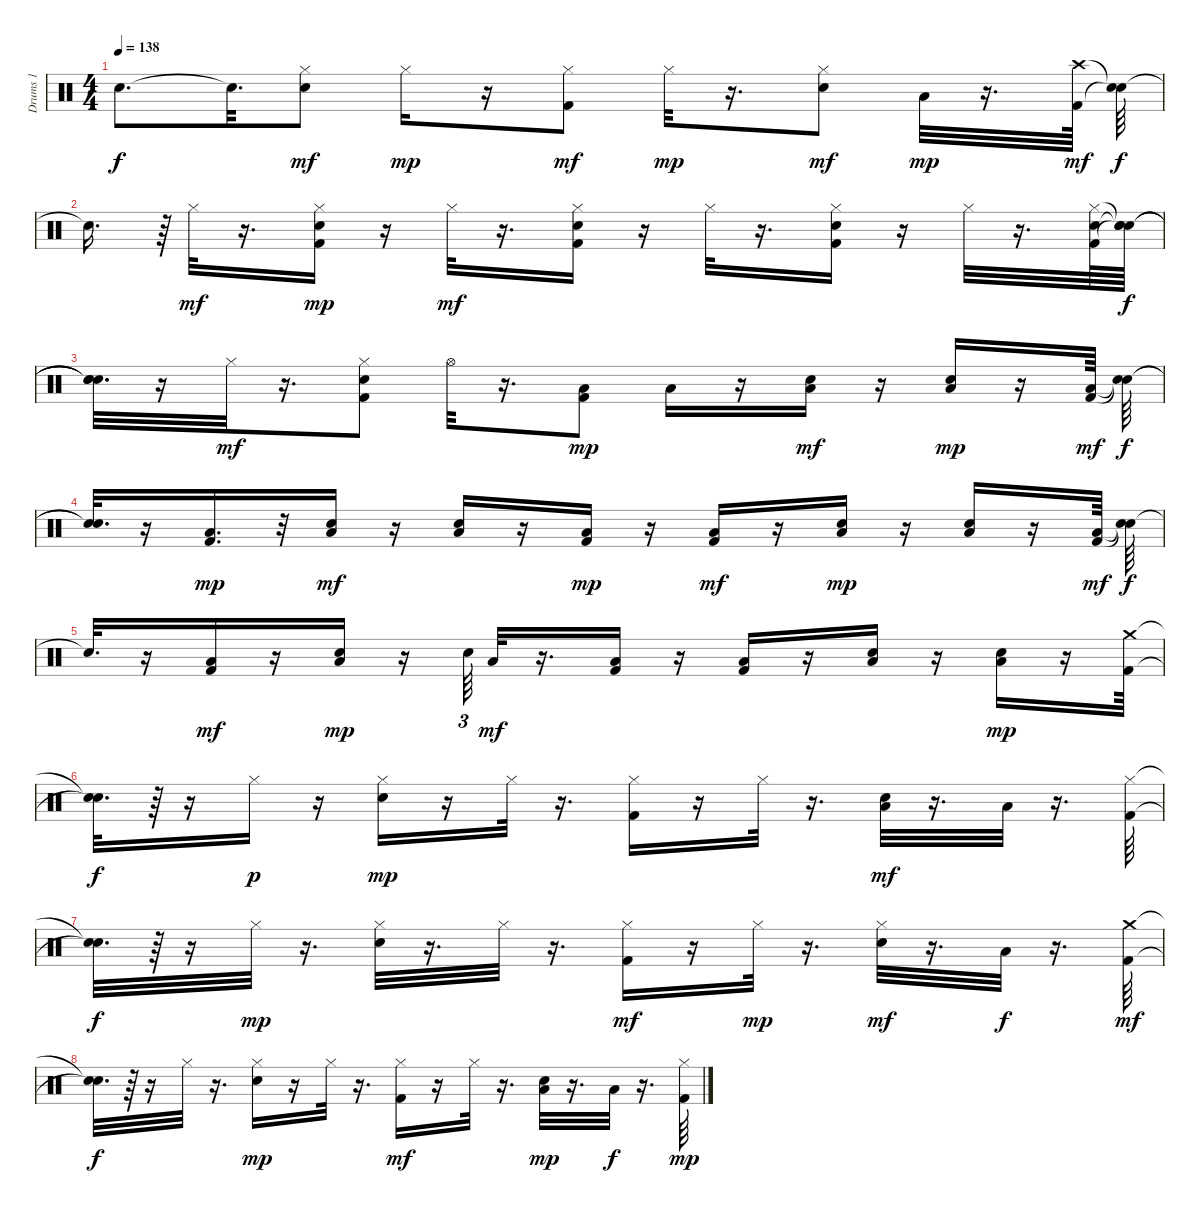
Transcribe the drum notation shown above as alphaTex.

\track ("Drums 1" "Drums 1") {instrument percussion}
\staff {score}
\articulation defaults
\ts (4 4)
\tempo 138
\clef neutral
\ks c "Snare (hit)"{t}.8{d dy f} "Snare (hit)"{t}.32{d}
("Snare (hit) 2" "Hi-Hat (closed)").8{dy mf} "Hi-Hat (closed)".16{dy mp} r.16 ("Kick (hit) 2" "Hi-Hat (closed)").8{dy mf} "Hi-Hat (closed)".32{dy mp} r.16{d} ("Snare (hit) 2" "Hi-Hat (closed)").8{dy mf} "Low Floor Tom (hit)".32{dy mp} r.16{d} ("Crash high (hit)" "Kick (hit) 2").64{dy mf} ("Snare (hit)"{t} "Snare (hit)"{t}).64{dy f} |
"Snare (hit)"{t}.16{d} r.64{tu (5 4)} "Hi-Hat (closed)".32{dy mf} r.16{d} ("Kick (hit) 2" "Hi-Hat (closed)" "Snare (hit) 2").16{dy mp} r.16 "Hi-Hat (closed)".32{dy mf} r.16{d} ("Hi-Hat (closed)" "Kick (hit) 2" "Snare (hit) 2").16 r.16 "Hi-Hat (closed)".32 r.16{d} ("Kick (hit) 2" "Hi-Hat (closed)" "Snare (hit) 2").16 r.16 "Hi-Hat (closed)".32 r.16{d} ("Hi-Hat (closed)" "Kick (hit) 2" "Snare (hit) 2").64 ("Snare (hit)"{t} "Snare (hit)"{t} "Snare (hit)"{t}).64{dy f} |
("Snare (hit)"{t} "Snare (hit)"{t} "Snare (hit)"{t}).32{d} r.16 "Hi-Hat (closed)".32{dy mf} r.16{d} ("Kick (hit) 2" "Snare (hit) 2" "Hi-Hat (closed)").8 "Hi-Hat (open)".32 r.16{d} ("Kick (hit) 2" "Low Floor Tom (hit)").8{dy mp} "Low Floor Tom (hit)".16 r.16 ("Snare (hit) 2" "Low Floor Tom (hit)").16{dy mf} r.16 ("Low Floor Tom (hit)" "Snare (hit) 2").16{dy mp} r.16 ("Kick (hit) 2" "Low Floor Tom (hit)").64{dy mf} ("Snare (hit)"{t} "Snare (hit)"{t}).64{dy f} |
("Snare (hit)"{t} "Snare (hit)"{t}).32{d} r.16 ("Low Floor Tom (hit)" "Kick (hit) 2").16{d dy mp} r.32 ("Low Floor Tom (hit)" "Snare (hit) 2").16{dy mf} r.16 ("Snare (hit) 2" "Low Floor Tom (hit)").16 r.16 ("Low Floor Tom (hit)" "Kick (hit) 2").16{dy mp} r.16 ("Kick (hit) 2" "Low Floor Tom (hit)").16{dy mf} r.16 ("Low Floor Tom (hit)" "Snare (hit) 2").16{dy mp} r.16 ("Low Floor Tom (hit)" "Snare (hit) 2").16 r.16 ("Kick (hit) 2" "Low Floor Tom (hit)").64{dy mf} ("Snare (hit)"{t} "Snare (hit)"{t}).64{dy f} |
"Snare (hit)"{t}.32{d} r.16 ("Kick (hit) 2" "Low Floor Tom (hit)").16{dy mf} r.16 ("Low Floor Tom (hit)" "Snare (hit) 2").16{dy mp} r.16 "Snare (hit) 2".64{tu (3 2)} "Low Floor Tom (hit)".32{dy mf} r.16{d} ("Kick (hit) 2" "Low Floor Tom (hit)").16 r.16 ("Kick (hit) 2" "Low Floor Tom (hit)").16 r.16 ("Snare (hit) 2" "Low Floor Tom (hit)").16 r.16 ("Low Floor Tom (hit)" "Snare (hit) 2").16{dy mp} r.16 ("Kick (hit) 2" "Crash medium (hit)").64 |
("Snare (hit)"{t} "Snare (hit)"{t}).32{d dy f} r.64 r.16 "Hi-Hat (closed)".16{dy p} r.16 ("Snare (hit) 2" "Hi-Hat (closed)").16{dy mp} r.16 "Hi-Hat (closed)".32 r.16{d} ("Kick (hit) 2" "Hi-Hat (closed)").16 r.16 "Hi-Hat (closed)".32 r.16{d} ("Snare (hit) 2" "Low Tom (hit)").32{dy mf} r.16{d} "Low Floor Tom (hit)".32 r.16{d} ("Kick (hit) 2" "Hi-Hat (closed)").64 |
("Snare (hit)"{t} "Snare (hit)"{t}).32{d dy f} r.64 r.16 "Hi-Hat (closed)".32{dy mp} r.16{d} ("Snare (hit) 2" "Hi-Hat (closed)").32 r.16{d} "Hi-Hat (closed)".32 r.16{d} ("Kick (hit) 2" "Hi-Hat (closed)").16{dy mf} r.16 "Hi-Hat (closed)".32{dy mp} r.16{d} ("Hi-Hat (closed)" "Snare (hit) 2").32{dy mf} r.16{d} "Low Floor Tom (hit)".32{dy f} r.16{d} ("Crash medium (hit)" "Kick (hit) 2").64{dy mf} |
("Snare (hit)"{t} "Snare (hit)"{t}).32{d dy f} r.64 r.16 "Hi-Hat (closed)".32 r.16{d} ("Snare (hit) 2" "Hi-Hat (closed)").16{dy mp} r.16 "Hi-Hat (closed)".32 r.16{d} ("Kick (hit) 2" "Hi-Hat (closed)").16{dy mf} r.16 "Hi-Hat (closed)".32 r.16{d} ("Snare (hit) 2" "Low Tom (hit)").32{dy mp} r.16{d} "Low Floor Tom (hit)".32{dy f} r.16{d} ("Kick (hit) 2" "Hi-Hat (closed)").64{dy mp}
